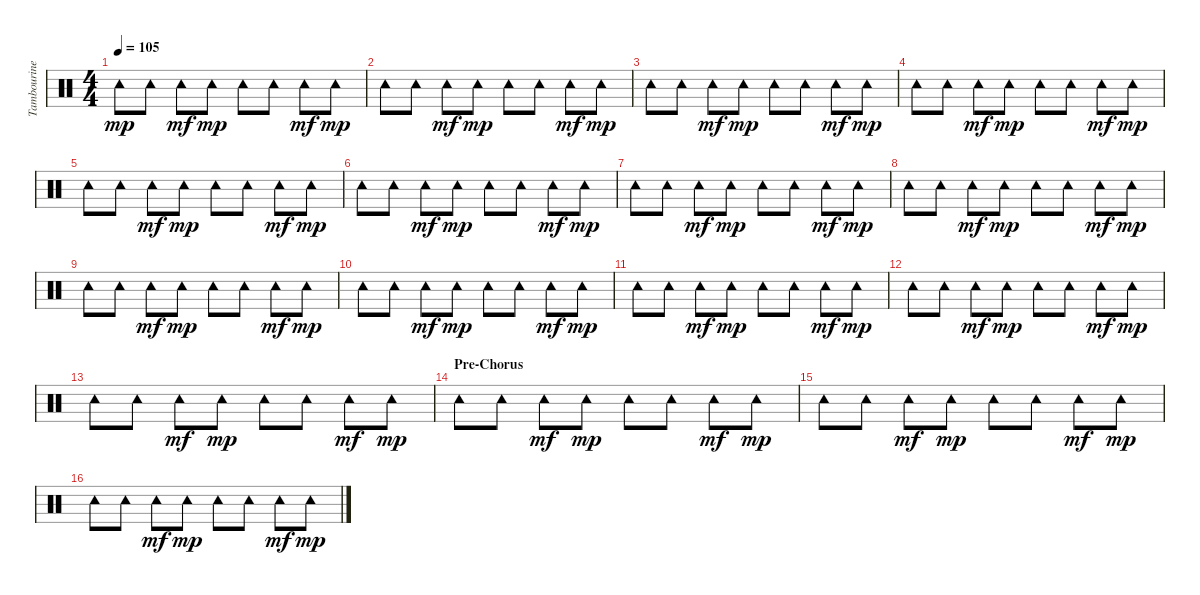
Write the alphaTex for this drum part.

\track ("Tambourine" "Tambourine") {instrument percussion}
\staff {score}
\articulation defaults
\ts (4 4)
\tempo 105
\clef neutral
\ks c "Tambourine (hit)".8{dy mp} "Tambourine (hit)".8 "Tambourine (hit)".8{dy mf} "Tambourine (hit)".8{dy mp} "Tambourine (hit)".8 "Tambourine (hit)".8 "Tambourine (hit)".8{dy mf} "Tambourine (hit)".8{dy mp}
|
"Tambourine (hit)".8 "Tambourine (hit)".8 "Tambourine (hit)".8{dy mf} "Tambourine (hit)".8{dy mp} "Tambourine (hit)".8 "Tambourine (hit)".8 "Tambourine (hit)".8{dy mf} "Tambourine (hit)".8{dy mp} |
"Tambourine (hit)".8 "Tambourine (hit)".8 "Tambourine (hit)".8{dy mf} "Tambourine (hit)".8{dy mp} "Tambourine (hit)".8 "Tambourine (hit)".8 "Tambourine (hit)".8{dy mf} "Tambourine (hit)".8{dy mp} |
"Tambourine (hit)".8 "Tambourine (hit)".8 "Tambourine (hit)".8{dy mf} "Tambourine (hit)".8{dy mp} "Tambourine (hit)".8 "Tambourine (hit)".8 "Tambourine (hit)".8{dy mf} "Tambourine (hit)".8{dy mp} |
"Tambourine (hit)".8 "Tambourine (hit)".8 "Tambourine (hit)".8{dy mf} "Tambourine (hit)".8{dy mp} "Tambourine (hit)".8 "Tambourine (hit)".8 "Tambourine (hit)".8{dy mf} "Tambourine (hit)".8{dy mp} |
"Tambourine (hit)".8 "Tambourine (hit)".8 "Tambourine (hit)".8{dy mf} "Tambourine (hit)".8{dy mp} "Tambourine (hit)".8 "Tambourine (hit)".8 "Tambourine (hit)".8{dy mf} "Tambourine (hit)".8{dy mp} |
"Tambourine (hit)".8 "Tambourine (hit)".8 "Tambourine (hit)".8{dy mf} "Tambourine (hit)".8{dy mp} "Tambourine (hit)".8 "Tambourine (hit)".8 "Tambourine (hit)".8{dy mf} "Tambourine (hit)".8{dy mp} |
"Tambourine (hit)".8 "Tambourine (hit)".8 "Tambourine (hit)".8{dy mf} "Tambourine (hit)".8{dy mp} "Tambourine (hit)".8 "Tambourine (hit)".8 "Tambourine (hit)".8{dy mf} "Tambourine (hit)".8{dy mp} |
"Tambourine (hit)".8 "Tambourine (hit)".8 "Tambourine (hit)".8{dy mf} "Tambourine (hit)".8{dy mp} "Tambourine (hit)".8 "Tambourine (hit)".8 "Tambourine (hit)".8{dy mf} "Tambourine (hit)".8{dy mp} |
"Tambourine (hit)".8 "Tambourine (hit)".8 "Tambourine (hit)".8{dy mf} "Tambourine (hit)".8{dy mp} "Tambourine (hit)".8 "Tambourine (hit)".8 "Tambourine (hit)".8{dy mf} "Tambourine (hit)".8{dy mp} |
"Tambourine (hit)".8 "Tambourine (hit)".8 "Tambourine (hit)".8{dy mf} "Tambourine (hit)".8{dy mp} "Tambourine (hit)".8 "Tambourine (hit)".8 "Tambourine (hit)".8{dy mf} "Tambourine (hit)".8{dy mp} |
"Tambourine (hit)".8 "Tambourine (hit)".8 "Tambourine (hit)".8{dy mf} "Tambourine (hit)".8{dy mp} "Tambourine (hit)".8 "Tambourine (hit)".8 "Tambourine (hit)".8{dy mf} "Tambourine (hit)".8{dy mp} |
"Tambourine (hit)".8 "Tambourine (hit)".8 "Tambourine (hit)".8{dy mf} "Tambourine (hit)".8{dy mp} "Tambourine (hit)".8 "Tambourine (hit)".8 "Tambourine (hit)".8{dy mf} "Tambourine (hit)".8{dy mp} |
\section ("" "Pre-Chorus")
"Tambourine (hit)".8 "Tambourine (hit)".8 "Tambourine (hit)".8{dy mf} "Tambourine (hit)".8{dy mp} "Tambourine (hit)".8 "Tambourine (hit)".8 "Tambourine (hit)".8{dy mf} "Tambourine (hit)".8{dy mp} |
"Tambourine (hit)".8 "Tambourine (hit)".8 "Tambourine (hit)".8{dy mf} "Tambourine (hit)".8{dy mp} "Tambourine (hit)".8 "Tambourine (hit)".8 "Tambourine (hit)".8{dy mf} "Tambourine (hit)".8{dy mp} |
"Tambourine (hit)".8 "Tambourine (hit)".8 "Tambourine (hit)".8{dy mf} "Tambourine (hit)".8{dy mp} "Tambourine (hit)".8 "Tambourine (hit)".8 "Tambourine (hit)".8{dy mf} "Tambourine (hit)".8{dy mp}
